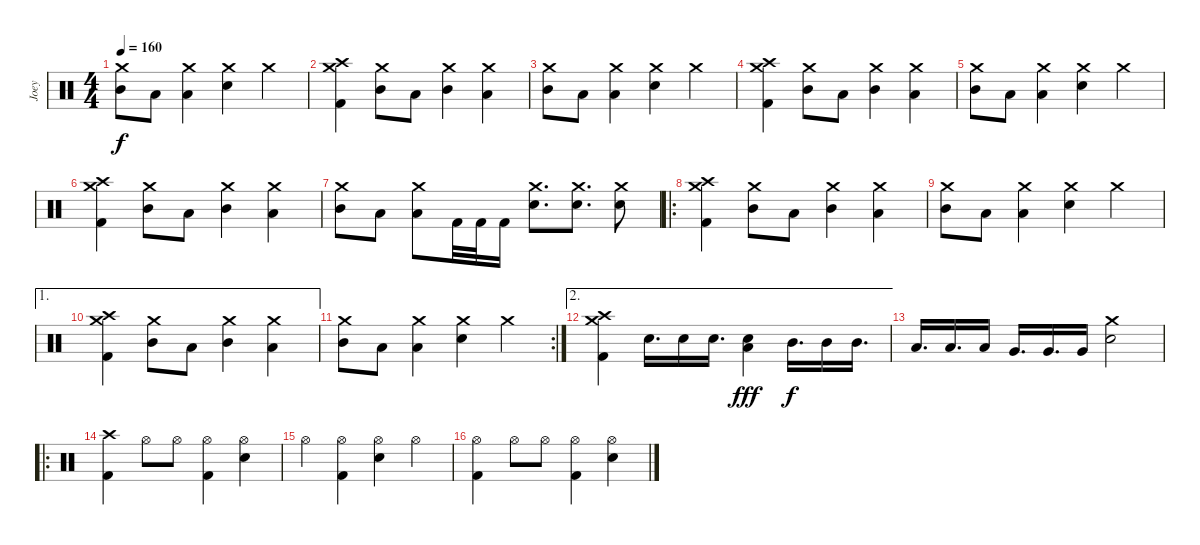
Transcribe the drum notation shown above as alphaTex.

\track ("Joey" "Joey") {instrument percussion}
\staff {score}
\articulation defaults
\ts (4 4)
\tempo 160
\clef neutral
\ks c
("Crash medium (hit)" "Mid Tom (hit)").8{dy f} "Low Tom (hit)".8 ("Crash medium (hit)" "Low Tom (hit)").4 ("Crash medium (hit)" "Electric Snare (hit)").4 "Crash medium (hit)".4 |
("Crash high (hit)" "Crash medium (hit)" "Kick (hit) 2").4 ("Crash medium (hit)" "Mid Tom (hit)").8 "Low Tom (hit)".8 ("Crash medium (hit)" "Mid Tom (hit)").4 ("Crash medium (hit)" "Low Tom (hit)").4 |
("Crash medium (hit)" "Mid Tom (hit)").8 "Low Tom (hit)".8 ("Crash medium (hit)" "Low Tom (hit)").4 ("Crash medium (hit)" "Electric Snare (hit)").4 "Crash medium (hit)".4 |
("Crash high (hit)" "Crash medium (hit)" "Kick (hit) 2").4 ("Crash medium (hit)" "Mid Tom (hit)").8 "Low Tom (hit)".8 ("Crash medium (hit)" "Mid Tom (hit)").4 ("Crash medium (hit)" "Low Tom (hit)").4 |
("Crash medium (hit)" "Mid Tom (hit)").8 "Low Tom (hit)".8 ("Crash medium (hit)" "Low Tom (hit)").4 ("Crash medium (hit)" "Electric Snare (hit)").4 "Crash medium (hit)".4 |
("Crash high (hit)" "Crash medium (hit)" "Kick (hit) 2").4 ("Crash medium (hit)" "Mid Tom (hit)").8 "Low Tom (hit)".8 ("Crash medium (hit)" "Mid Tom (hit)").4 ("Crash medium (hit)" "Low Tom (hit)").4 |
("Crash medium (hit)" "Mid Tom (hit)").8 "Low Tom (hit)".8 ("Crash medium (hit)" "Low Tom (hit)").8 "Kick (hit) 2".32 "Kick (hit) 2".32 "Kick (hit) 2".16 ("Crash medium (hit)" "Electric Snare (hit)").8{d} ("Crash medium (hit)" "Electric Snare (hit)").8{d} ("Crash medium (hit)" "Electric Snare (hit)").8 |
\ro
("Crash high (hit)" "Crash medium (hit)" "Kick (hit) 2").4 ("Crash medium (hit)" "Mid Tom (hit)").8 "Low Tom (hit)".8 ("Crash medium (hit)" "Mid Tom (hit)").4 ("Crash medium (hit)" "Low Tom (hit)").4 |
("Crash medium (hit)" "Mid Tom (hit)").8 "Low Tom (hit)".8 ("Crash medium (hit)" "Low Tom (hit)").4 ("Crash medium (hit)" "Electric Snare (hit)").4 "Crash medium (hit)".4 |
\ae 1
("Crash high (hit)" "Crash medium (hit)" "Kick (hit) 2").4 ("Crash medium (hit)" "Mid Tom (hit)").8 "Low Tom (hit)".8 ("Crash medium (hit)" "Mid Tom (hit)").4 ("Crash medium (hit)" "Low Tom (hit)").4 |
\rc 2
("Crash medium (hit)" "Mid Tom (hit)").8 "Low Tom (hit)".8 ("Crash medium (hit)" "Low Tom (hit)").4 ("Crash medium (hit)" "Electric Snare (hit)").4 "Crash medium (hit)".4 |
\ae 2
("Crash high (hit)" "Crash medium (hit)" "Kick (hit) 2").4 "Electric Snare (hit)".16{d} "Electric Snare (hit)".16 "Electric Snare (hit)".16{d} ("Electric Snare (hit)" "Low Floor Tom (hit)").4{dy fff} "Mid Tom (hit)".16{d dy f} "Mid Tom (hit)".16 "Mid Tom (hit)".16{d} |
"Low Tom (hit)".16{d} "Low Tom (hit)".16{d} "Low Tom (hit)".16 "Very Low Tom (hit)".16{d} "Very Low Tom (hit)".16{d} "Very Low Tom (hit)".16 ("Crash medium (hit)" "Electric Snare (hit)").2 |
\ro
("Crash high (hit)" "Kick (hit) 2").4 "Hi-Hat (open)".8 "Hi-Hat (open)".8 ("Hi-Hat (open)" "Kick (hit) 2").4 ("Hi-Hat (open)" "Electric Snare (hit)").4 |
"Hi-Hat (open)".4 ("Hi-Hat (open)" "Kick (hit) 2").4 ("Hi-Hat (open)" "Electric Snare (hit)").4 "Hi-Hat (open)".4 |
("Hi-Hat (open)" "Kick (hit) 2").4 "Hi-Hat (open)".8 "Hi-Hat (open)".8 ("Hi-Hat (open)" "Kick (hit) 2").4 ("Hi-Hat (open)" "Electric Snare (hit)").4
